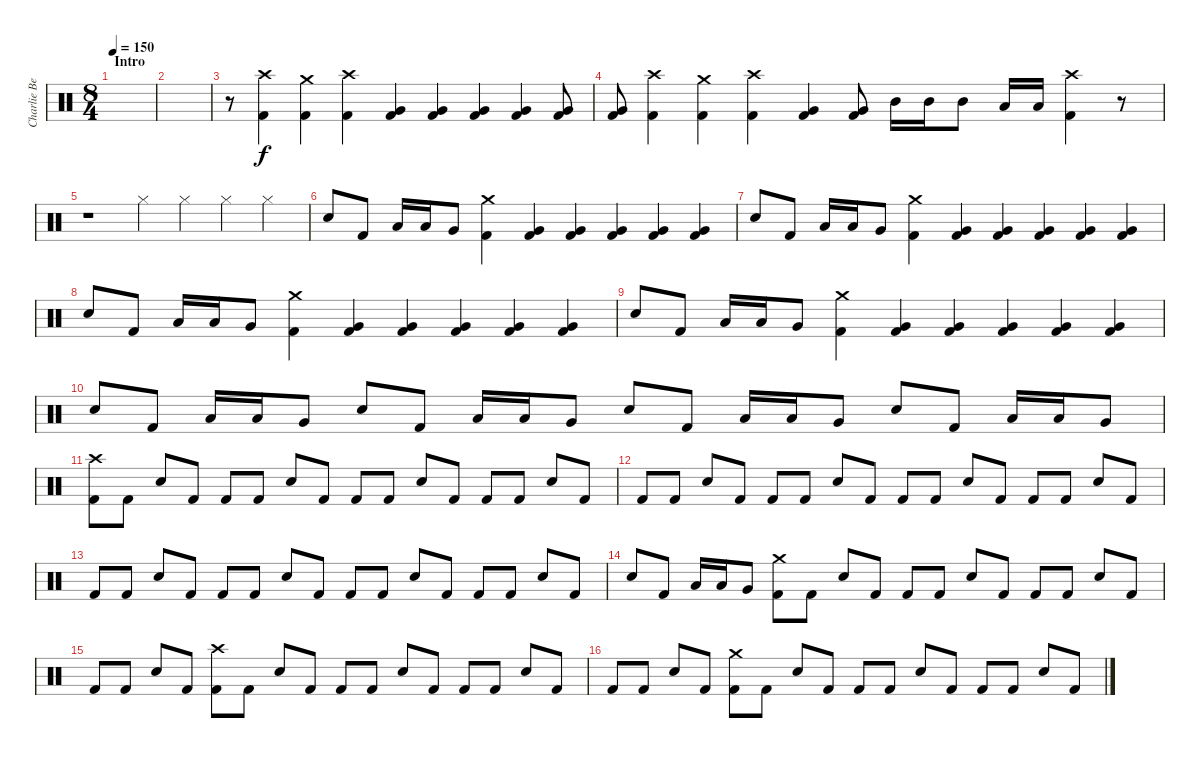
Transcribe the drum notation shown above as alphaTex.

\track ("Charlie Benante" "Charlie Be") {instrument percussion}
\staff {score}
\articulation defaults
\ts (8 4)
\section ("" "Intro")
\tempo 150
\clef neutral
\ks c
|
|
r.8 ("Crash high (hit)" "Kick (hit) 2").4 ("Crash medium (hit)" "Kick (hit) 2").4 ("Crash high (hit)" "Kick (hit) 2").4 ("Very Low Tom (hit)" "Kick (hit) 2").4 ("Very Low Tom (hit)" "Kick (hit) 2").4 ("Very Low Tom (hit)" "Kick (hit) 2").4 ("Very Low Tom (hit)" "Kick (hit) 2").4 ("Very Low Tom (hit)" "Kick (hit) 2").8 |
("Very Low Tom (hit)" "Kick (hit) 2").8 ("Crash high (hit)" "Kick (hit) 2").4 ("Crash medium (hit)" "Kick (hit) 2").4 ("Crash high (hit)" "Kick (hit) 2").4 ("Very Low Tom (hit)" "Kick (hit) 2").4 ("Very Low Tom (hit)" "Kick (hit) 2").8 "Mid Tom (hit)".16 "Mid Tom (hit)".16 "Mid Tom (hit)".8 "Low Tom (hit)".16 "Low Tom (hit)".16 ("Crash high (hit)" "Kick (hit) 2").4 r.8 |
r.1 "Hi-Hat (closed)".4 "Hi-Hat (closed)".4 "Hi-Hat (closed)".4 "Hi-Hat (closed)".4 |
"Electric Snare (hit)".8 "Kick (hit) 2".8 "Low Tom (hit)".16 "Low Tom (hit)".16 "Very Low Tom (hit)".8 ("Crash medium (hit)" "Kick (hit) 2").4 ("Very Low Tom (hit)" "Kick (hit) 2").4 ("Very Low Tom (hit)" "Kick (hit) 2").4 ("Very Low Tom (hit)" "Kick (hit) 2").4 ("Very Low Tom (hit)" "Kick (hit) 2").4 ("Very Low Tom (hit)" "Kick (hit) 2").4 |
"Electric Snare (hit)".8 "Kick (hit) 2".8 "Low Tom (hit)".16 "Low Tom (hit)".16 "Very Low Tom (hit)".8 ("Crash medium (hit)" "Kick (hit) 2").4 ("Very Low Tom (hit)" "Kick (hit) 2").4 ("Very Low Tom (hit)" "Kick (hit) 2").4 ("Very Low Tom (hit)" "Kick (hit) 2").4 ("Very Low Tom (hit)" "Kick (hit) 2").4 ("Very Low Tom (hit)" "Kick (hit) 2").4 |
"Electric Snare (hit)".8 "Kick (hit) 2".8 "Low Tom (hit)".16 "Low Tom (hit)".16 "Very Low Tom (hit)".8 ("Crash medium (hit)" "Kick (hit) 2").4 ("Very Low Tom (hit)" "Kick (hit) 2").4 ("Very Low Tom (hit)" "Kick (hit) 2").4 ("Very Low Tom (hit)" "Kick (hit) 2").4 ("Very Low Tom (hit)" "Kick (hit) 2").4 ("Very Low Tom (hit)" "Kick (hit) 2").4 |
"Electric Snare (hit)".8 "Kick (hit) 2".8 "Low Tom (hit)".16 "Low Tom (hit)".16 "Very Low Tom (hit)".8 ("Crash medium (hit)" "Kick (hit) 2").4 ("Very Low Tom (hit)" "Kick (hit) 2").4 ("Very Low Tom (hit)" "Kick (hit) 2").4 ("Very Low Tom (hit)" "Kick (hit) 2").4 ("Very Low Tom (hit)" "Kick (hit) 2").4 ("Very Low Tom (hit)" "Kick (hit) 2").4 |
"Electric Snare (hit)".8 "Kick (hit) 2".8 "Low Tom (hit)".16 "Low Tom (hit)".16 "Very Low Tom (hit)".8 "Electric Snare (hit)".8 "Kick (hit) 2".8 "Low Tom (hit)".16 "Low Tom (hit)".16 "Very Low Tom (hit)".8 "Electric Snare (hit)".8 "Kick (hit) 2".8 "Low Tom (hit)".16 "Low Tom (hit)".16 "Very Low Tom (hit)".8 "Electric Snare (hit)".8 "Kick (hit) 2".8 "Low Tom (hit)".16 "Low Tom (hit)".16 "Very Low Tom (hit)".8 |
("Crash high (hit)" "Kick (hit) 2").8 "Kick (hit) 2".8 "Electric Snare (hit)".8 "Kick (hit) 2".8 "Kick (hit) 2".8 "Kick (hit) 2".8 "Electric Snare (hit)".8 "Kick (hit) 2".8 "Kick (hit) 2".8 "Kick (hit) 2".8 "Electric Snare (hit)".8 "Kick (hit) 2".8 "Kick (hit) 2".8 "Kick (hit) 2".8 "Electric Snare (hit)".8 "Kick (hit) 2".8 |
"Kick (hit) 2".8 "Kick (hit) 2".8 "Electric Snare (hit)".8 "Kick (hit) 2".8 "Kick (hit) 2".8 "Kick (hit) 2".8 "Electric Snare (hit)".8 "Kick (hit) 2".8 "Kick (hit) 2".8 "Kick (hit) 2".8 "Electric Snare (hit)".8 "Kick (hit) 2".8 "Kick (hit) 2".8 "Kick (hit) 2".8 "Electric Snare (hit)".8 "Kick (hit) 2".8 |
"Kick (hit) 2".8 "Kick (hit) 2".8 "Electric Snare (hit)".8 "Kick (hit) 2".8 "Kick (hit) 2".8 "Kick (hit) 2".8 "Electric Snare (hit)".8 "Kick (hit) 2".8 "Kick (hit) 2".8 "Kick (hit) 2".8 "Electric Snare (hit)".8 "Kick (hit) 2".8 "Kick (hit) 2".8 "Kick (hit) 2".8 "Electric Snare (hit)".8 "Kick (hit) 2".8 |
"Electric Snare (hit)".8 "Kick (hit) 2".8 "Low Tom (hit)".16 "Low Tom (hit)".16 "Very Low Tom (hit)".8 ("Crash medium (hit)" "Kick (hit) 2").8 "Kick (hit) 2".8 "Electric Snare (hit)".8 "Kick (hit) 2".8 "Kick (hit) 2".8 "Kick (hit) 2".8 "Electric Snare (hit)".8 "Kick (hit) 2".8 "Kick (hit) 2".8 "Kick (hit) 2".8 "Electric Snare (hit)".8 "Kick (hit) 2".8 |
"Kick (hit) 2".8 "Kick (hit) 2".8 "Electric Snare (hit)".8 "Kick (hit) 2".8 ("Crash high (hit)" "Kick (hit) 2").8 "Kick (hit) 2".8 "Electric Snare (hit)".8 "Kick (hit) 2".8 "Kick (hit) 2".8 "Kick (hit) 2".8 "Electric Snare (hit)".8 "Kick (hit) 2".8 "Kick (hit) 2".8 "Kick (hit) 2".8 "Electric Snare (hit)".8 "Kick (hit) 2".8 |
"Kick (hit) 2".8 "Kick (hit) 2".8 "Electric Snare (hit)".8 "Kick (hit) 2".8 ("Crash medium (hit)" "Kick (hit) 2").8 "Kick (hit) 2".8 "Electric Snare (hit)".8 "Kick (hit) 2".8 "Kick (hit) 2".8 "Kick (hit) 2".8 "Electric Snare (hit)".8 "Kick (hit) 2".8 "Kick (hit) 2".8 "Kick (hit) 2".8 "Electric Snare (hit)".8 "Kick (hit) 2".8
